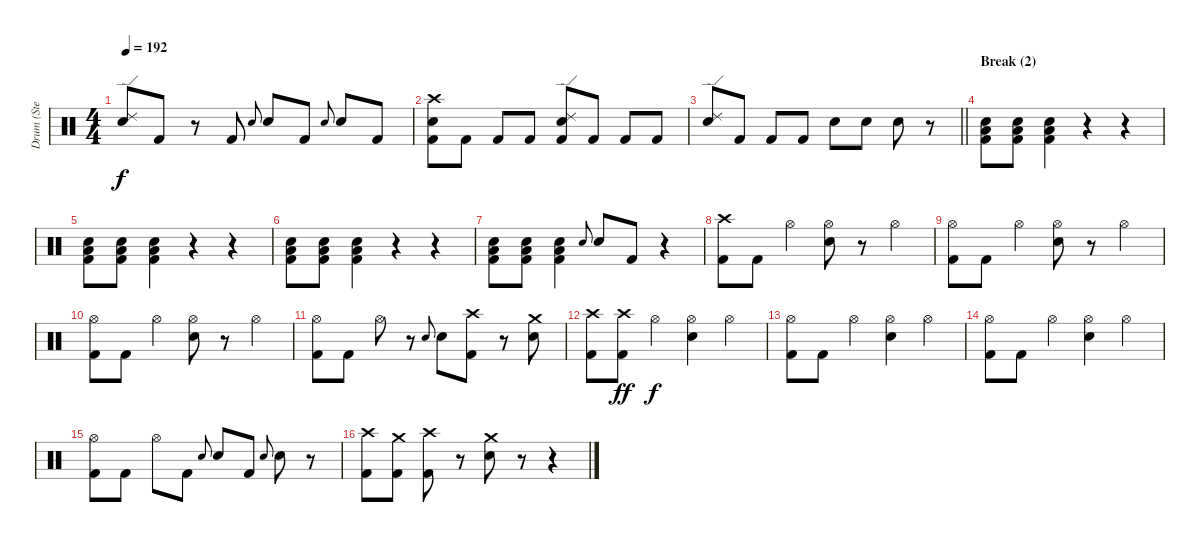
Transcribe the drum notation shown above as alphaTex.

\track (" Drum (Steve O)" " Drum (Ste") {instrument percussion}
\staff {score}
\articulation defaults
\ts (4 4)
\tempo 192
\clef neutral
\ks c
("Ride (edge) 2" "Snare (hit) 2").8{dy f} "Kick (hit) 2".8 r.8 "Kick (hit) 2".8 "Snare (hit) 2".8{gr onbeat} "Snare (hit) 2".8 "Kick (hit) 2".8 "Snare (hit) 2".8{gr onbeat} "Snare (hit) 2".8 "Kick (hit) 2".8 |
("Crash high (hit)" "Kick (hit) 2" "Snare (hit) 2").8 "Kick (hit) 2".8 "Kick (hit) 2".8 "Kick (hit) 2".8 ("Ride (edge) 2" "Snare (hit) 2" "Kick (hit) 2").8 "Kick (hit) 2".8 "Kick (hit) 2".8 "Kick (hit) 2".8 |
\barLineRight lightlight
("Ride (edge) 2" "Snare (hit) 2").8 "Kick (hit) 2".8 "Kick (hit) 2".8 "Kick (hit) 2".8 "Snare (hit) 2".8 "Snare (hit) 2".8 "Snare (hit) 2".8 r.8 |
\section ("" "Break (2)")
("Snare (hit) 2" "Low Floor Tom (hit)" "Kick (hit) 2").8 ("Snare (hit) 2" "Low Floor Tom (hit)" "Kick (hit) 2").8 ("Snare (hit) 2" "Low Floor Tom (hit)" "Kick (hit) 2").4 r.4 r.4 |
("Snare (hit) 2" "Low Floor Tom (hit)" "Kick (hit) 2").8 ("Snare (hit) 2" "Low Floor Tom (hit)" "Kick (hit) 2").8 ("Snare (hit) 2" "Low Floor Tom (hit)" "Kick (hit) 2").4 r.4 r.4 |
("Snare (hit) 2" "Low Floor Tom (hit)" "Kick (hit) 2").8 ("Snare (hit) 2" "Low Floor Tom (hit)" "Kick (hit) 2").8 ("Snare (hit) 2" "Low Floor Tom (hit)" "Kick (hit) 2").4 r.4 r.4 |
("Snare (hit) 2" "Low Floor Tom (hit)" "Kick (hit) 2").8 ("Snare (hit) 2" "Low Floor Tom (hit)" "Kick (hit) 2").8 ("Snare (hit) 2" "Low Floor Tom (hit)" "Kick (hit) 2").4 "Snare (hit) 2".8{gr onbeat} "Snare (hit) 2".8 "Kick (hit) 2".8 r.4 |
("Crash high (hit)" "Kick (hit) 2").8 "Kick (hit) 2".8 "Hi-Hat (open)".4 ("Hi-Hat (open)" "Snare (hit) 2").8 r.8 "Hi-Hat (open)".4 |
("Hi-Hat (open)" "Kick (hit) 2").8 "Kick (hit) 2".8 "Hi-Hat (open)".4 ("Hi-Hat (open)" "Snare (hit) 2").8 r.8 "Hi-Hat (open)".4 |
("Hi-Hat (open)" "Kick (hit) 2").8 "Kick (hit) 2".8 "Hi-Hat (open)".4 ("Hi-Hat (open)" "Snare (hit) 2").8 r.8 "Hi-Hat (open)".4 |
("Hi-Hat (open)" "Kick (hit) 2").8 "Kick (hit) 2".8 "Hi-Hat (open)".8 r.8 "Snare (hit) 2".8{gr onbeat} "Snare (hit) 2".8 ("Crash high (hit)" "Kick (hit) 2").8 r.8 ("Crash medium (hit)" "Snare (hit) 2").8 |
("Crash high (hit)" "Kick (hit) 2").8 ("Crash high (hit)" "Kick (hit) 2").8{dy ff} "Hi-Hat (open)".4{dy f} ("Hi-Hat (open)" "Snare (hit) 2").4 "Hi-Hat (open)".4 |
("Hi-Hat (open)" "Kick (hit) 2").8 "Kick (hit) 2".8 "Hi-Hat (open)".4 ("Hi-Hat (open)" "Snare (hit) 2").4 "Hi-Hat (open)".4 |
("Hi-Hat (open)" "Kick (hit) 2").8 "Kick (hit) 2".8 "Hi-Hat (open)".4 ("Hi-Hat (open)" "Snare (hit) 2").4 "Hi-Hat (open)".4 |
("Hi-Hat (open)" "Kick (hit) 2").8 "Kick (hit) 2".8 "Hi-Hat (open)".8 "Kick (hit) 2".8 "Snare (hit) 2".8{gr onbeat} "Snare (hit) 2".8 "Kick (hit) 2".8 "Snare (hit) 2".8{gr onbeat} "Snare (hit) 2".8 r.8 |
("Crash high (hit)" "Kick (hit) 2").8 ("Crash medium (hit)" "Kick (hit) 2").8 ("Crash high (hit)" "Kick (hit) 2").8 r.8 ("Crash medium (hit)" "Snare (hit) 2").8 r.8 r.4
